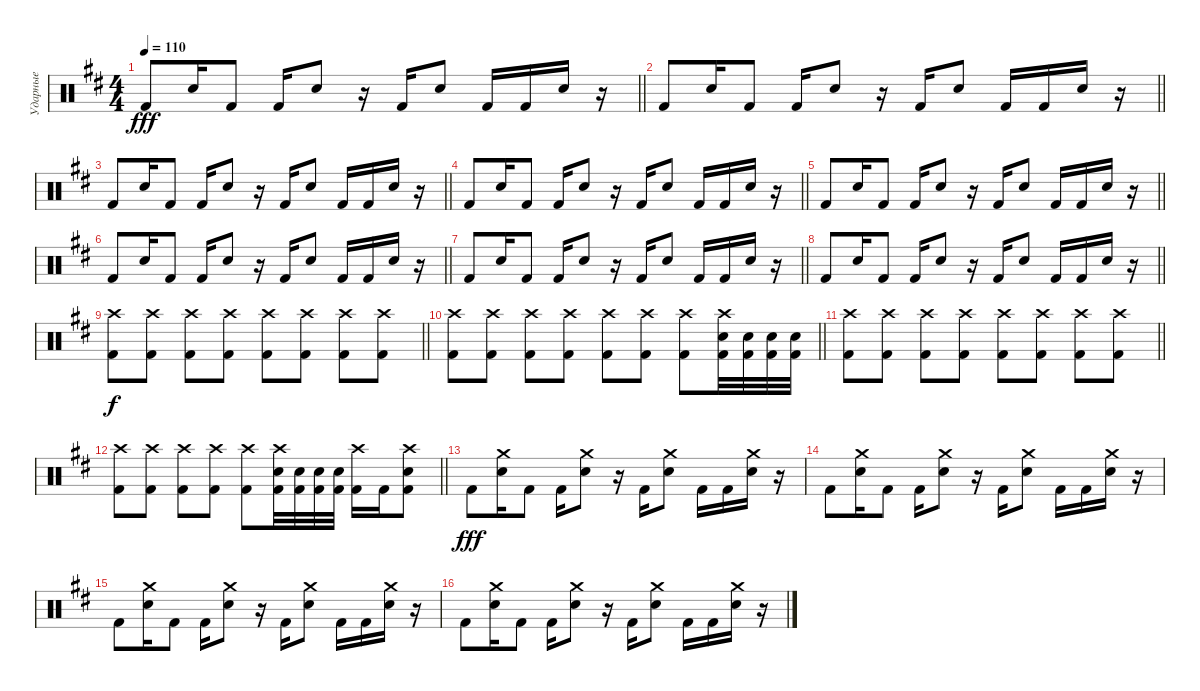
\track ("Ударные" "Ударные") {instrument percussion}
\staff {score}
\articulation defaults
\ts (4 4)
\tempo 110
\clef neutral
\barLineRight lightlight
\ks d "Kick (hit) 2".8{dy fff} "Electric Snare (hit)".16 "Kick (hit) 2".8 "Kick (hit) 2".16 "Electric Snare (hit)".8
r.16 "Kick (hit) 2".16 "Electric Snare (hit)".8 "Kick (hit) 2".16 "Kick (hit) 2".16 "Electric Snare (hit)".16 r.16 |
\barLineRight lightlight "Kick (hit) 2".8 "Electric Snare (hit)".16 "Kick (hit) 2".8 "Kick (hit) 2".16 "Electric Snare (hit)".8
r.16 "Kick (hit) 2".16 "Electric Snare (hit)".8 "Kick (hit) 2".16 "Kick (hit) 2".16 "Electric Snare (hit)".16 r.16 |
\barLineRight lightlight "Kick (hit) 2".8 "Electric Snare (hit)".16 "Kick (hit) 2".8 "Kick (hit) 2".16 "Electric Snare (hit)".8
r.16 "Kick (hit) 2".16 "Electric Snare (hit)".8 "Kick (hit) 2".16 "Kick (hit) 2".16 "Electric Snare (hit)".16 r.16 |
\barLineRight lightlight "Kick (hit) 2".8 "Electric Snare (hit)".16 "Kick (hit) 2".8 "Kick (hit) 2".16 "Electric Snare (hit)".8
r.16 "Kick (hit) 2".16 "Electric Snare (hit)".8 "Kick (hit) 2".16 "Kick (hit) 2".16 "Electric Snare (hit)".16 r.16 |
\barLineRight lightlight "Kick (hit) 2".8 "Electric Snare (hit)".16 "Kick (hit) 2".8 "Kick (hit) 2".16 "Electric Snare (hit)".8
r.16 "Kick (hit) 2".16 "Electric Snare (hit)".8 "Kick (hit) 2".16 "Kick (hit) 2".16 "Electric Snare (hit)".16 r.16 |
\barLineRight lightlight "Kick (hit) 2".8 "Electric Snare (hit)".16 "Kick (hit) 2".8 "Kick (hit) 2".16 "Electric Snare (hit)".8
r.16 "Kick (hit) 2".16 "Electric Snare (hit)".8 "Kick (hit) 2".16 "Kick (hit) 2".16 "Electric Snare (hit)".16 r.16 |
\barLineRight lightlight "Kick (hit) 2".8 "Electric Snare (hit)".16 "Kick (hit) 2".8 "Kick (hit) 2".16 "Electric Snare (hit)".8
r.16 "Kick (hit) 2".16 "Electric Snare (hit)".8 "Kick (hit) 2".16 "Kick (hit) 2".16 "Electric Snare (hit)".16 r.16 |
\barLineRight lightlight "Kick (hit) 2".8 "Electric Snare (hit)".16 "Kick (hit) 2".8 "Kick (hit) 2".16 "Electric Snare (hit)".8
r.16 "Kick (hit) 2".16 "Electric Snare (hit)".8 "Kick (hit) 2".16 "Kick (hit) 2".16 "Electric Snare (hit)".16 r.16 |
\section ("" "")
\barLineRight lightlight
("Crash high (hit)" "Kick (hit) 2").8{dy f} ("Crash high (hit)" "Kick (hit) 2").8 ("Crash high (hit)" "Kick (hit) 2").8 ("Crash high (hit)" "Kick (hit) 2").8 ("Crash high (hit)" "Kick (hit) 2").8 ("Crash high (hit)" "Kick (hit) 2").8 ("Crash high (hit)" "Kick (hit) 2").8 ("Crash high (hit)" "Kick (hit) 2").8 |
\barLineRight lightlight
("Crash high (hit)" "Kick (hit) 2").8 ("Crash high (hit)" "Kick (hit) 2").8 ("Crash high (hit)" "Kick (hit) 2").8 ("Crash high (hit)" "Kick (hit) 2").8 ("Crash high (hit)" "Kick (hit) 2").8 ("Crash high (hit)" "Kick (hit) 2").8 ("Crash high (hit)" "Kick (hit) 2").8 ("Crash high (hit)" "Electric Snare (hit)" "Kick (hit) 2").32 ("Electric Snare (hit)" "Kick (hit) 2").32 ("Electric Snare (hit)" "Kick (hit) 2").32 ("Electric Snare (hit)" "Kick (hit) 2").32 |
\barLineRight lightlight
("Crash high (hit)" "Kick (hit) 2").8 ("Crash high (hit)" "Kick (hit) 2").8 ("Crash high (hit)" "Kick (hit) 2").8 ("Crash high (hit)" "Kick (hit) 2").8 ("Crash high (hit)" "Kick (hit) 2").8 ("Crash high (hit)" "Kick (hit) 2").8 ("Crash high (hit)" "Kick (hit) 2").8 ("Crash high (hit)" "Kick (hit) 2").8 |
\barLineRight lightlight
("Crash high (hit)" "Kick (hit) 2").8 ("Crash high (hit)" "Kick (hit) 2").8 ("Crash high (hit)" "Kick (hit) 2").8 ("Crash high (hit)" "Kick (hit) 2").8 ("Crash high (hit)" "Kick (hit) 2").8 ("Crash high (hit)" "Electric Snare (hit)" "Kick (hit) 2").32 ("Electric Snare (hit)" "Kick (hit) 2").32 ("Electric Snare (hit)" "Kick (hit) 2").32 ("Electric Snare (hit)" "Kick (hit) 2").32 ("Crash high (hit)" "Kick (hit) 2").16 "Kick (hit) 2".16 ("Crash high (hit)" "Electric Snare (hit)" "Kick (hit) 2").8 |
\section ("" "")
"Kick (hit) 2".8{dy fff} ("Crash medium (hit)" "Electric Snare (hit)").16 "Kick (hit) 2".8 "Kick (hit) 2".16 ("Crash medium (hit)" "Electric Snare (hit)").8 r.16 "Kick (hit) 2".16 ("Crash medium (hit)" "Electric Snare (hit)").8 "Kick (hit) 2".16 "Kick (hit) 2".16 ("Crash medium (hit)" "Electric Snare (hit)").16 r.16 |
"Kick (hit) 2".8 ("Crash medium (hit)" "Electric Snare (hit)").16 "Kick (hit) 2".8 "Kick (hit) 2".16 ("Crash medium (hit)" "Electric Snare (hit)").8 r.16 "Kick (hit) 2".16 ("Crash medium (hit)" "Electric Snare (hit)").8 "Kick (hit) 2".16 "Kick (hit) 2".16 ("Crash medium (hit)" "Electric Snare (hit)").16 r.16 |
"Kick (hit) 2".8 ("Crash medium (hit)" "Electric Snare (hit)").16 "Kick (hit) 2".8 "Kick (hit) 2".16 ("Crash medium (hit)" "Electric Snare (hit)").8 r.16 "Kick (hit) 2".16 ("Crash medium (hit)" "Electric Snare (hit)").8 "Kick (hit) 2".16 "Kick (hit) 2".16 ("Crash medium (hit)" "Electric Snare (hit)").16 r.16 |
"Kick (hit) 2".8 ("Crash medium (hit)" "Electric Snare (hit)").16 "Kick (hit) 2".8 "Kick (hit) 2".16 ("Crash medium (hit)" "Electric Snare (hit)").8 r.16 "Kick (hit) 2".16 ("Crash medium (hit)" "Electric Snare (hit)").8 "Kick (hit) 2".16 "Kick (hit) 2".16 ("Crash medium (hit)" "Electric Snare (hit)").16 r.16
